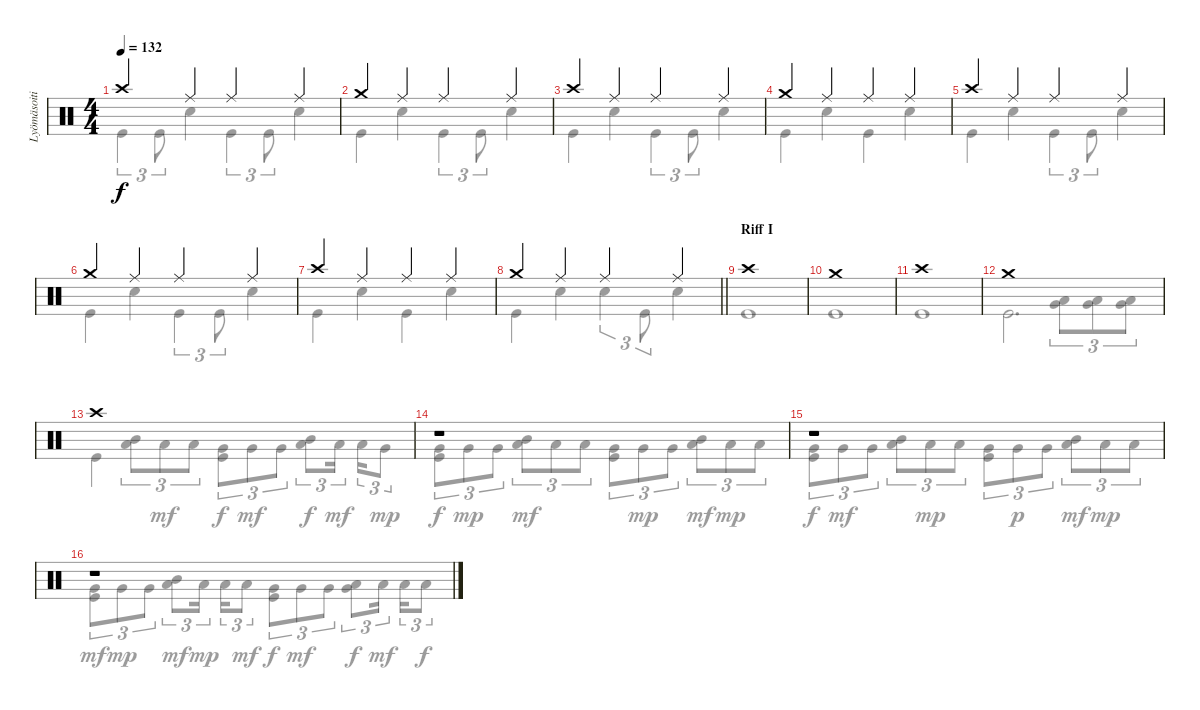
\track ("Lyömäsoitin" "Lyömäsoiti") {instrument percussion}
\staff {score}
\articulation defaults
\voice
\ts (4 4)
\tempo 132
\clef neutral
\ks c "Crash high (hit)".4{dy f} "Ride (middle)".4 "Ride (middle)".4 "Ride (middle)".4
|
"Crash medium (hit)".4 "Ride (middle)".4 "Ride (middle)".4 "Ride (middle)".4 |
"Crash high (hit)".4 "Ride (middle)".4 "Ride (middle)".4 "Ride (middle)".4 |
"Crash medium (hit)".4 "Ride (middle)".4 "Ride (middle)".4 "Ride (middle)".4 |
"Crash high (hit)".4 "Ride (middle)".4 "Ride (middle)".4 "Ride (middle)".4 |
"Crash medium (hit)".4 "Ride (middle)".4 "Ride (middle)".4 "Ride (middle)".4 |
"Crash high (hit)".4 "Ride (middle)".4 "Ride (middle)".4 "Ride (middle)".4 |
\barLineRight lightlight "Crash medium (hit)".4 "Ride (middle)".4 "Ride (middle)".4 "Ride (middle)".4
|
\section ("" "Riff I")
"Crash high (hit)".1 |
"Crash medium (hit)".1 |
"Crash high (hit)".1 |
"Crash medium (hit)".1 |
"Crash high (hit)".1 |
r.1 |
r.1 |
r.1
\voice
\clef neutral
\ottava regular
\simile none
\ks c "Kick (hit)".4{tu (3 2) dy f} "Kick (hit)".8{tu (3 2)} "Snare (hit) 2".4 "Kick (hit)".4{tu (3 2)} "Kick (hit)".8{tu (3 2)} "Snare (hit) 2".4
|
"Kick (hit)".4 "Snare (hit) 2".4 "Kick (hit)".4{tu (3 2)} "Kick (hit)".8{tu (3 2)} "Snare (hit) 2".4 |
"Kick (hit)".4 "Snare (hit) 2".4 "Kick (hit)".4{tu (3 2)} "Kick (hit)".8{tu (3 2)} "Snare (hit) 2".4 |
"Kick (hit)".4 "Snare (hit) 2".4 "Kick (hit)".4 "Snare (hit) 2".4 |
"Kick (hit)".4 "Snare (hit) 2".4 "Kick (hit)".4{tu (3 2)} "Kick (hit)".8{tu (3 2)} "Snare (hit) 2".4 |
"Kick (hit)".4 "Snare (hit) 2".4 "Kick (hit)".4{tu (3 2)} "Kick (hit)".8{tu (3 2)} "Snare (hit) 2".4 |
"Kick (hit)".4 "Snare (hit) 2".4 "Kick (hit)".4 "Snare (hit) 2".4 |
\barLineRight lightlight "Kick (hit)".4 "Snare (hit) 2".4 "Snare (hit) 2".4{tu (3 2)} "Kick (hit)".8{tu (3 2)} "Snare (hit) 2".4
|
"Kick (hit)".1 |
"Kick (hit)".1 |
"Kick (hit)".1 |
"Kick (hit)".2{d} ("Very Low Tom (hit)" "Low Floor Tom (hit)").8{tu (3 2)} ("Very Low Tom (hit)" "Low Floor Tom (hit)").8{tu (3 2)} ("Very Low Tom (hit)" "Low Floor Tom (hit)").8{tu (3 2)} |
"Kick (hit)".4 ("Mid Tom (hit)" "Low Tom (hit)").8{tu (3 2)} "Low Tom (hit)".8{tu (3 2) dy mf} "Low Tom (hit)".8{tu (3 2)} ("Very Low Tom (hit)" "Kick (hit)").8{tu (3 2) dy f} "Very Low Tom (hit)".8{tu (3 2) dy mf} "Very Low Tom (hit)".8{tu (3 2)} ("Mid Tom (hit)" "Low Tom (hit)").8{tu (3 2) dy f} "Low Tom (hit)".16{tu (3 2) dy mf beam splitsecondary} "Low Tom (hit)".16{tu (3 2)} "Very Low Tom (hit)".8{tu (3 2) dy mp} |
("Very Low Tom (hit)" "Kick (hit)").8{tu (3 2) dy f} "Very Low Tom (hit)".8{tu (3 2) dy mp} "Very Low Tom (hit)".8{tu (3 2)} ("Mid Tom (hit)" "Low Tom (hit)").8{tu (3 2) dy mf} "Low Tom (hit)".8{tu (3 2)} "Low Tom (hit)".8{tu (3 2)} ("Very Low Tom (hit)" "Kick (hit)").8{tu (3 2)} "Very Low Tom (hit)".8{tu (3 2) dy mp} "Very Low Tom (hit)".8{tu (3 2)} ("Mid Tom (hit)" "Low Tom (hit)").8{tu (3 2) dy mf} "Low Tom (hit)".8{tu (3 2) dy mp} "Low Tom (hit)".8{tu (3 2)} |
("Very Low Tom (hit)" "Kick (hit)").8{tu (3 2) dy f} "Very Low Tom (hit)".8{tu (3 2) dy mf} "Very Low Tom (hit)".8{tu (3 2)} ("Mid Tom (hit)" "Low Tom (hit)").8{tu (3 2)} "Low Tom (hit)".8{tu (3 2) dy mp} "Low Tom (hit)".8{tu (3 2)} ("Very Low Tom (hit)" "Kick (hit)").8{tu (3 2)} "Very Low Tom (hit)".8{tu (3 2) dy p} "Very Low Tom (hit)".8{tu (3 2)} ("Mid Tom (hit)" "Low Tom (hit)").8{tu (3 2) dy mf} "Low Tom (hit)".8{tu (3 2) dy mp} "Low Tom (hit)".8{tu (3 2)} |
("Very Low Tom (hit)" "Kick (hit)").8{tu (3 2) dy mf} "Very Low Tom (hit)".8{tu (3 2) dy mp} "Very Low Tom (hit)".8{tu (3 2)} ("Mid Tom (hit)" "Low Tom (hit)").8{tu (3 2) dy mf} "Low Tom (hit)".16{tu (3 2) dy mp beam splitsecondary} "Low Tom (hit)".16{tu (3 2)} "Low Tom (hit)".8{tu (3 2) dy mf} ("Very Low Tom (hit)" "Kick (hit)").8{tu (3 2) dy f} "Very Low Tom (hit)".8{tu (3 2) dy mf} "Very Low Tom (hit)".8{tu (3 2)} ("Very Low Tom (hit)" "Low Floor Tom (hit)").8{tu (3 2) dy f} "Low Floor Tom (hit)".16{tu (3 2) dy mf beam splitsecondary} "Low Floor Tom (hit)".16{tu (3 2)} "Low Floor Tom (hit)".8{tu (3 2) dy f}
